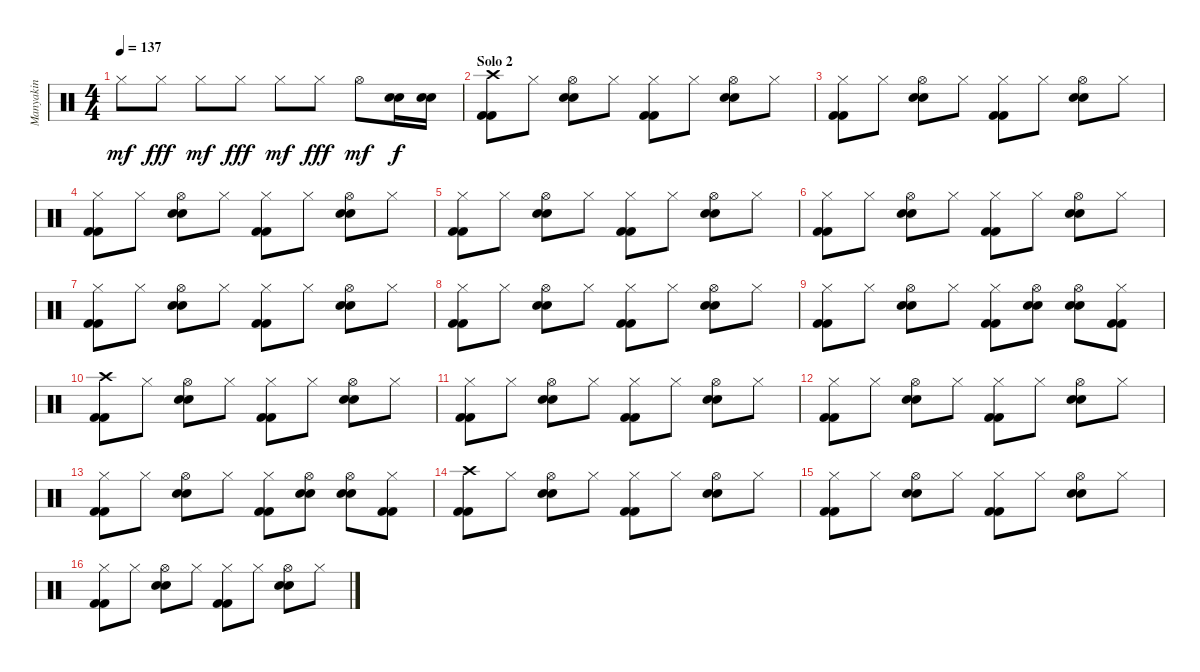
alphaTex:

\track ("Manyakin" "Manyakin") {instrument percussion}
\staff {score}
\articulation defaults
\ts (4 4)
\tempo 137
\clef neutral
\ks c "Hi-Hat (closed)".8{dy mf} "Hi-Hat (closed)".8{dy fff} "Hi-Hat (closed)".8{dy mf} "Hi-Hat (closed)".8{dy fff} "Hi-Hat (closed)".8{dy mf} "Hi-Hat (closed)".8{dy fff} "Hi-Hat (open)".8{dy mf}
("Electric Snare (hit)" "Electric Snare (hit)").16{dy f} ("Electric Snare (hit)" "Electric Snare (hit)").16 |
\section ("" "Solo 2")
("Crash high (hit)" "Kick (hit) 2" "Kick (hit) 2").8 "Hi-Hat (closed)".8 ("Hi-Hat (open)" "Electric Snare (hit)" "Electric Snare (hit)").8 "Hi-Hat (closed)".8 ("Hi-Hat (closed)" "Kick (hit) 2" "Kick (hit) 2").8 "Hi-Hat (closed)".8 ("Hi-Hat (open)" "Electric Snare (hit)" "Electric Snare (hit)").8 "Hi-Hat (closed)".8 |
("Hi-Hat (closed)" "Kick (hit) 2" "Kick (hit) 2").8 "Hi-Hat (closed)".8 ("Hi-Hat (open)" "Electric Snare (hit)" "Electric Snare (hit)").8 "Hi-Hat (closed)".8 ("Hi-Hat (closed)" "Kick (hit) 2" "Kick (hit) 2").8 "Hi-Hat (closed)".8 ("Hi-Hat (open)" "Electric Snare (hit)" "Electric Snare (hit)").8 "Hi-Hat (closed)".8 |
("Hi-Hat (closed)" "Kick (hit) 2" "Kick (hit) 2").8 "Hi-Hat (closed)".8 ("Hi-Hat (open)" "Electric Snare (hit)" "Electric Snare (hit)").8 "Hi-Hat (closed)".8 ("Hi-Hat (closed)" "Kick (hit) 2" "Kick (hit) 2").8 "Hi-Hat (closed)".8 ("Hi-Hat (open)" "Electric Snare (hit)" "Electric Snare (hit)").8 "Hi-Hat (closed)".8 |
("Hi-Hat (closed)" "Kick (hit) 2" "Kick (hit) 2").8 "Hi-Hat (closed)".8 ("Hi-Hat (open)" "Electric Snare (hit)" "Electric Snare (hit)").8 "Hi-Hat (closed)".8 ("Hi-Hat (closed)" "Kick (hit) 2" "Kick (hit) 2").8 "Hi-Hat (closed)".8 ("Hi-Hat (open)" "Electric Snare (hit)" "Electric Snare (hit)").8 "Hi-Hat (closed)".8 |
("Hi-Hat (closed)" "Kick (hit) 2" "Kick (hit) 2").8 "Hi-Hat (closed)".8 ("Hi-Hat (open)" "Electric Snare (hit)" "Electric Snare (hit)").8 "Hi-Hat (closed)".8 ("Hi-Hat (closed)" "Kick (hit) 2" "Kick (hit) 2").8 "Hi-Hat (closed)".8 ("Hi-Hat (open)" "Electric Snare (hit)" "Electric Snare (hit)").8 "Hi-Hat (closed)".8 |
("Hi-Hat (closed)" "Kick (hit) 2" "Kick (hit) 2").8 "Hi-Hat (closed)".8 ("Hi-Hat (open)" "Electric Snare (hit)" "Electric Snare (hit)").8 "Hi-Hat (closed)".8 ("Hi-Hat (closed)" "Kick (hit) 2" "Kick (hit) 2").8 "Hi-Hat (closed)".8 ("Hi-Hat (open)" "Electric Snare (hit)" "Electric Snare (hit)").8 "Hi-Hat (closed)".8 |
("Hi-Hat (closed)" "Kick (hit) 2" "Kick (hit) 2").8 "Hi-Hat (closed)".8 ("Hi-Hat (open)" "Electric Snare (hit)" "Electric Snare (hit)").8 "Hi-Hat (closed)".8 ("Hi-Hat (closed)" "Kick (hit) 2" "Kick (hit) 2").8 "Hi-Hat (closed)".8 ("Hi-Hat (open)" "Electric Snare (hit)" "Electric Snare (hit)").8 "Hi-Hat (closed)".8 |
("Hi-Hat (closed)" "Kick (hit) 2" "Kick (hit) 2").8 "Hi-Hat (closed)".8 ("Hi-Hat (open)" "Electric Snare (hit)" "Electric Snare (hit)").8 "Hi-Hat (closed)".8 ("Hi-Hat (closed)" "Kick (hit) 2" "Kick (hit) 2").8 ("Hi-Hat (open)" "Electric Snare (hit)" "Electric Snare (hit)").8 ("Hi-Hat (open)" "Electric Snare (hit)" "Electric Snare (hit)").8 ("Hi-Hat (closed)" "Kick (hit) 2" "Kick (hit) 2").8 |
("Crash high (hit)" "Kick (hit) 2" "Kick (hit) 2").8 "Hi-Hat (closed)".8 ("Hi-Hat (open)" "Electric Snare (hit)" "Electric Snare (hit)").8 "Hi-Hat (closed)".8 ("Hi-Hat (closed)" "Kick (hit) 2" "Kick (hit) 2").8 "Hi-Hat (closed)".8 ("Hi-Hat (open)" "Electric Snare (hit)" "Electric Snare (hit)").8 "Hi-Hat (closed)".8 |
("Hi-Hat (closed)" "Kick (hit) 2" "Kick (hit) 2").8 "Hi-Hat (closed)".8 ("Hi-Hat (open)" "Electric Snare (hit)" "Electric Snare (hit)").8 "Hi-Hat (closed)".8 ("Hi-Hat (closed)" "Kick (hit) 2" "Kick (hit) 2").8 "Hi-Hat (closed)".8 ("Hi-Hat (open)" "Electric Snare (hit)" "Electric Snare (hit)").8 "Hi-Hat (closed)".8 |
("Hi-Hat (closed)" "Kick (hit) 2" "Kick (hit) 2").8 "Hi-Hat (closed)".8 ("Hi-Hat (open)" "Electric Snare (hit)" "Electric Snare (hit)").8 "Hi-Hat (closed)".8 ("Hi-Hat (closed)" "Kick (hit) 2" "Kick (hit) 2").8 "Hi-Hat (closed)".8 ("Hi-Hat (open)" "Electric Snare (hit)" "Electric Snare (hit)").8 "Hi-Hat (closed)".8 |
("Hi-Hat (closed)" "Kick (hit) 2" "Kick (hit) 2").8 "Hi-Hat (closed)".8 ("Hi-Hat (open)" "Electric Snare (hit)" "Electric Snare (hit)").8 "Hi-Hat (closed)".8 ("Hi-Hat (closed)" "Kick (hit) 2" "Kick (hit) 2").8 ("Hi-Hat (open)" "Electric Snare (hit)" "Electric Snare (hit)").8 ("Hi-Hat (open)" "Electric Snare (hit)" "Electric Snare (hit)").8 ("Hi-Hat (closed)" "Kick (hit) 2" "Kick (hit) 2").8 |
("Crash high (hit)" "Kick (hit) 2" "Kick (hit) 2").8 "Hi-Hat (closed)".8 ("Hi-Hat (open)" "Electric Snare (hit)" "Electric Snare (hit)").8 "Hi-Hat (closed)".8 ("Hi-Hat (closed)" "Kick (hit) 2" "Kick (hit) 2").8 "Hi-Hat (closed)".8 ("Hi-Hat (open)" "Electric Snare (hit)" "Electric Snare (hit)").8 "Hi-Hat (closed)".8 |
("Hi-Hat (closed)" "Kick (hit) 2" "Kick (hit) 2").8 "Hi-Hat (closed)".8 ("Hi-Hat (open)" "Electric Snare (hit)" "Electric Snare (hit)").8 "Hi-Hat (closed)".8 ("Hi-Hat (closed)" "Kick (hit) 2" "Kick (hit) 2").8 "Hi-Hat (closed)".8 ("Hi-Hat (open)" "Electric Snare (hit)" "Electric Snare (hit)").8 "Hi-Hat (closed)".8 |
("Hi-Hat (closed)" "Kick (hit) 2" "Kick (hit) 2").8 "Hi-Hat (closed)".8 ("Hi-Hat (open)" "Electric Snare (hit)" "Electric Snare (hit)").8 "Hi-Hat (closed)".8 ("Hi-Hat (closed)" "Kick (hit) 2" "Kick (hit) 2").8 "Hi-Hat (closed)".8 ("Hi-Hat (open)" "Electric Snare (hit)" "Electric Snare (hit)").8 "Hi-Hat (closed)".8
